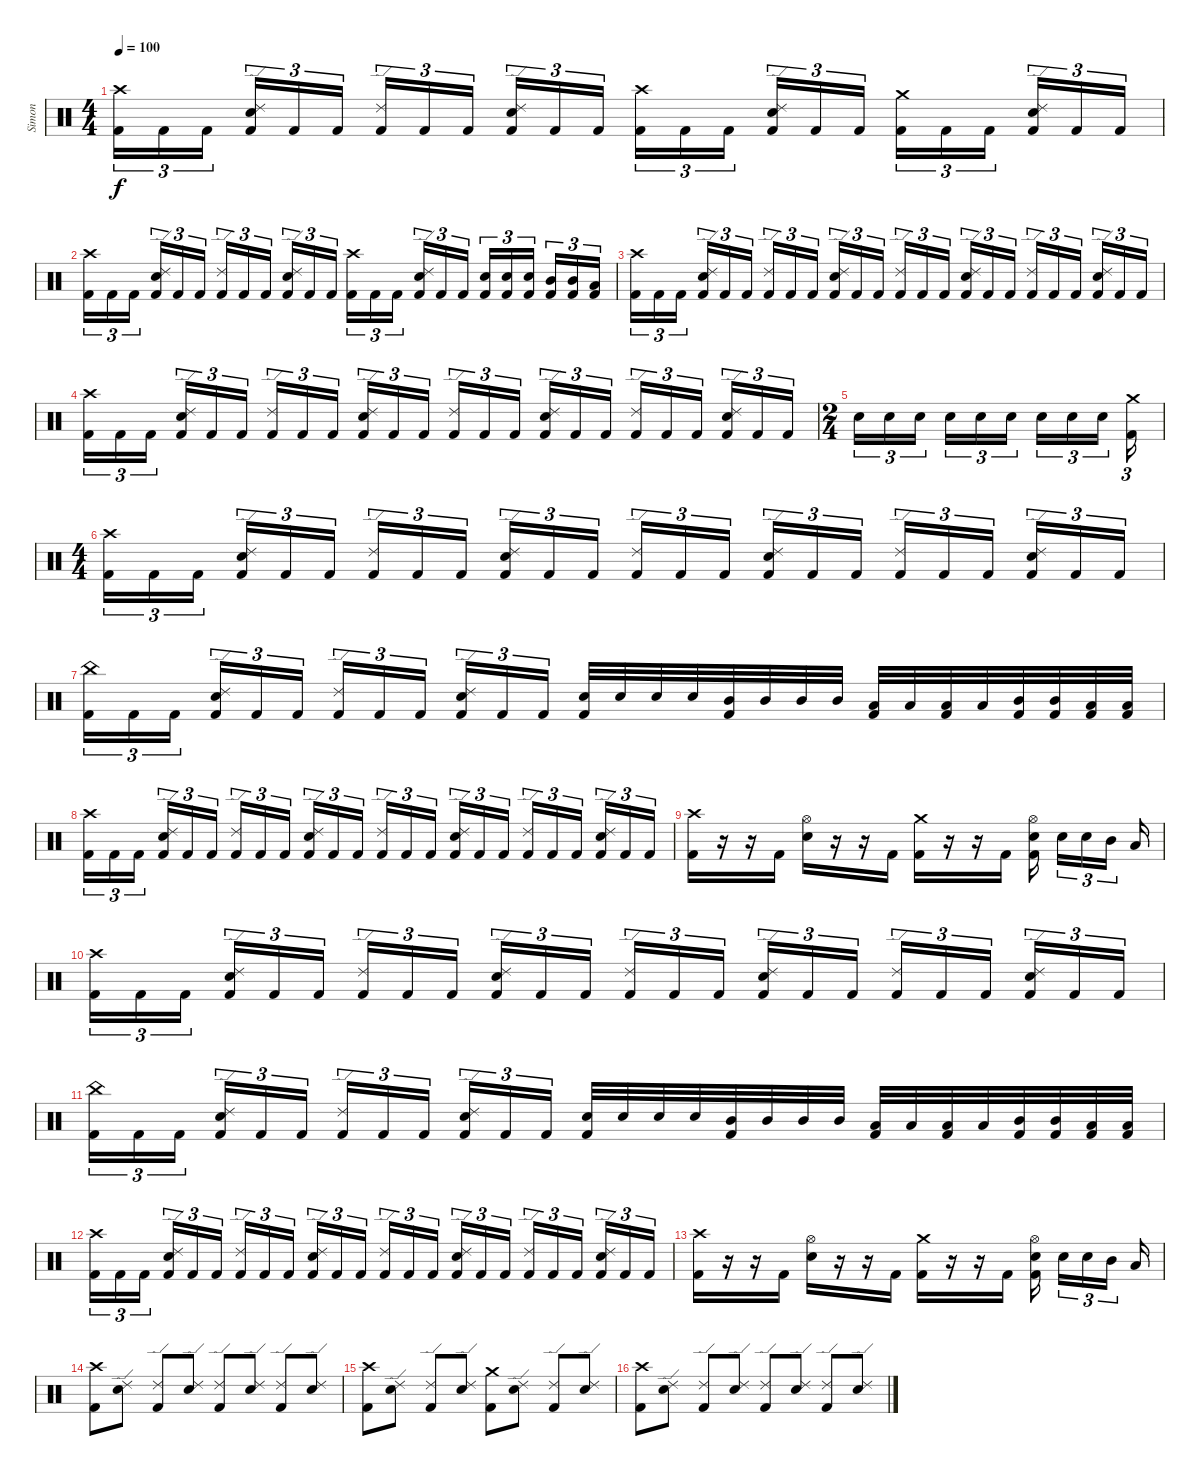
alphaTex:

\track ("Simon" "Simon") {instrument percussion}
\staff {score}
\articulation defaults
\ts (4 4)
\tempo 100
\clef neutral
\ks c
("Crash high (hit)" "Kick (hit) 2").16{tu (3 2) dy f} "Kick (hit) 2".16{tu (3 2)} "Kick (hit) 2".16{tu (3 2) beam splitsecondary} ("Ride (edge) 2" "Electric Snare (hit)" "Kick (hit) 2").16{tu (3 2)} "Kick (hit) 2".16{tu (3 2)} "Kick (hit) 2".16{tu (3 2)} ("Ride (edge) 2" "Kick (hit) 2").16{tu (3 2)} "Kick (hit) 2".16{tu (3 2)} "Kick (hit) 2".16{tu (3 2) beam splitsecondary} ("Ride (edge) 2" "Electric Snare (hit)" "Kick (hit) 2").16{tu (3 2)} "Kick (hit) 2".16{tu (3 2)} "Kick (hit) 2".16{tu (3 2)} ("Crash high (hit)" "Kick (hit) 2").16{tu (3 2)} "Kick (hit) 2".16{tu (3 2)} "Kick (hit) 2".16{tu (3 2) beam splitsecondary} ("Ride (edge) 2" "Electric Snare (hit)" "Kick (hit) 2").16{tu (3 2)} "Kick (hit) 2".16{tu (3 2)} "Kick (hit) 2".16{tu (3 2)} ("Crash medium (hit)" "Kick (hit) 2").16{tu (3 2)} "Kick (hit) 2".16{tu (3 2)} "Kick (hit) 2".16{tu (3 2) beam splitsecondary} ("Ride (edge) 2" "Electric Snare (hit)" "Kick (hit) 2").16{tu (3 2)} "Kick (hit) 2".16{tu (3 2)} "Kick (hit) 2".16{tu (3 2)} |
("Crash high (hit)" "Kick (hit) 2").16{tu (3 2)} "Kick (hit) 2".16{tu (3 2)} "Kick (hit) 2".16{tu (3 2) beam splitsecondary} ("Ride (edge) 2" "Electric Snare (hit)" "Kick (hit) 2").16{tu (3 2)} "Kick (hit) 2".16{tu (3 2)} "Kick (hit) 2".16{tu (3 2)} ("Ride (edge) 2" "Kick (hit) 2").16{tu (3 2)} "Kick (hit) 2".16{tu (3 2)} "Kick (hit) 2".16{tu (3 2) beam splitsecondary} ("Ride (edge) 2" "Electric Snare (hit)" "Kick (hit) 2").16{tu (3 2)} "Kick (hit) 2".16{tu (3 2)} "Kick (hit) 2".16{tu (3 2)} ("Crash high (hit)" "Kick (hit) 2").16{tu (3 2)} "Kick (hit) 2".16{tu (3 2)} "Kick (hit) 2".16{tu (3 2) beam splitsecondary} ("Ride (edge) 2" "Electric Snare (hit)" "Kick (hit) 2").16{tu (3 2)} "Kick (hit) 2".16{tu (3 2)} "Kick (hit) 2".16{tu (3 2)} ("Electric Snare (hit)" "Kick (hit) 2").16{tu (3 2)} ("Electric Snare (hit)" "Kick (hit) 2").16{tu (3 2)} ("Electric Snare (hit)" "Kick (hit) 2").16{tu (3 2) beam splitsecondary} ("Mid Tom (hit)" "Kick (hit) 2").16{tu (3 2)} ("Mid Tom (hit)" "Kick (hit) 2").16{tu (3 2)} ("Low Tom (hit)" "Kick (hit) 2").16{tu (3 2)} |
("Crash high (hit)" "Kick (hit) 2").16{tu (3 2)} "Kick (hit) 2".16{tu (3 2)} "Kick (hit) 2".16{tu (3 2) beam splitsecondary} ("Ride (edge) 2" "Electric Snare (hit)" "Kick (hit) 2").16{tu (3 2)} "Kick (hit) 2".16{tu (3 2)} "Kick (hit) 2".16{tu (3 2)} ("Ride (edge) 2" "Kick (hit) 2").16{tu (3 2)} "Kick (hit) 2".16{tu (3 2)} "Kick (hit) 2".16{tu (3 2) beam splitsecondary} ("Ride (edge) 2" "Electric Snare (hit)" "Kick (hit) 2").16{tu (3 2)} "Kick (hit) 2".16{tu (3 2)} "Kick (hit) 2".16{tu (3 2)} ("Ride (edge) 2" "Kick (hit) 2").16{tu (3 2)} "Kick (hit) 2".16{tu (3 2)} "Kick (hit) 2".16{tu (3 2) beam splitsecondary} ("Ride (edge) 2" "Electric Snare (hit)" "Kick (hit) 2").16{tu (3 2)} "Kick (hit) 2".16{tu (3 2)} "Kick (hit) 2".16{tu (3 2)} ("Ride (edge) 2" "Kick (hit) 2").16{tu (3 2)} "Kick (hit) 2".16{tu (3 2)} "Kick (hit) 2".16{tu (3 2) beam splitsecondary} ("Ride (edge) 2" "Electric Snare (hit)" "Kick (hit) 2").16{tu (3 2)} "Kick (hit) 2".16{tu (3 2)} "Kick (hit) 2".16{tu (3 2)} |
("Crash high (hit)" "Kick (hit) 2").16{tu (3 2)} "Kick (hit) 2".16{tu (3 2)} "Kick (hit) 2".16{tu (3 2) beam splitsecondary} ("Ride (edge) 2" "Electric Snare (hit)" "Kick (hit) 2").16{tu (3 2)} "Kick (hit) 2".16{tu (3 2)} "Kick (hit) 2".16{tu (3 2)} ("Ride (edge) 2" "Kick (hit) 2").16{tu (3 2)} "Kick (hit) 2".16{tu (3 2)} "Kick (hit) 2".16{tu (3 2) beam splitsecondary} ("Ride (edge) 2" "Electric Snare (hit)" "Kick (hit) 2").16{tu (3 2)} "Kick (hit) 2".16{tu (3 2)} "Kick (hit) 2".16{tu (3 2)} ("Ride (edge) 2" "Kick (hit) 2").16{tu (3 2)} "Kick (hit) 2".16{tu (3 2)} "Kick (hit) 2".16{tu (3 2) beam splitsecondary} ("Ride (edge) 2" "Electric Snare (hit)" "Kick (hit) 2").16{tu (3 2)} "Kick (hit) 2".16{tu (3 2)} "Kick (hit) 2".16{tu (3 2)} ("Ride (edge) 2" "Kick (hit) 2").16{tu (3 2)} "Kick (hit) 2".16{tu (3 2)} "Kick (hit) 2".16{tu (3 2) beam splitsecondary} ("Ride (edge) 2" "Electric Snare (hit)" "Kick (hit) 2").16{tu (3 2)} "Kick (hit) 2".16{tu (3 2)} "Kick (hit) 2".16{tu (3 2)} |
\ts (2 4)
"Electric Snare (hit)".16{tu (3 2)} "Electric Snare (hit)".16{tu (3 2)} "Electric Snare (hit)".16{tu (3 2) beam splitsecondary} "Electric Snare (hit)".16{tu (3 2)} "Electric Snare (hit)".16{tu (3 2)} "Electric Snare (hit)".16{tu (3 2)} "Electric Snare (hit)".16{tu (3 2)} "Electric Snare (hit)".16{tu (3 2)} "Electric Snare (hit)".16{tu (3 2) beam splitsecondary} ("Crash medium (hit)" "Kick (hit) 2").16{tu (3 2)} |
\ts (4 4)
("Crash high (hit)" "Kick (hit) 2").16{tu (3 2)} "Kick (hit) 2".16{tu (3 2)} "Kick (hit) 2".16{tu (3 2) beam splitsecondary} ("Ride (edge) 2" "Electric Snare (hit)" "Kick (hit) 2").16{tu (3 2)} "Kick (hit) 2".16{tu (3 2)} "Kick (hit) 2".16{tu (3 2)} ("Ride (edge) 2" "Kick (hit) 2").16{tu (3 2)} "Kick (hit) 2".16{tu (3 2)} "Kick (hit) 2".16{tu (3 2) beam splitsecondary} ("Ride (edge) 2" "Electric Snare (hit)" "Kick (hit) 2").16{tu (3 2)} "Kick (hit) 2".16{tu (3 2)} "Kick (hit) 2".16{tu (3 2)} ("Ride (edge) 2" "Kick (hit) 2").16{tu (3 2)} "Kick (hit) 2".16{tu (3 2)} "Kick (hit) 2".16{tu (3 2) beam splitsecondary} ("Ride (edge) 2" "Electric Snare (hit)" "Kick (hit) 2").16{tu (3 2)} "Kick (hit) 2".16{tu (3 2)} "Kick (hit) 2".16{tu (3 2)} ("Ride (edge) 2" "Kick (hit) 2").16{tu (3 2)} "Kick (hit) 2".16{tu (3 2)} "Kick (hit) 2".16{tu (3 2) beam splitsecondary} ("Ride (edge) 2" "Electric Snare (hit)" "Kick (hit) 2").16{tu (3 2)} "Kick (hit) 2".16{tu (3 2)} "Kick (hit) 2".16{tu (3 2)} |
("China (hit)" "Kick (hit) 2").16{tu (3 2)} "Kick (hit) 2".16{tu (3 2)} "Kick (hit) 2".16{tu (3 2) beam splitsecondary} ("Ride (edge) 2" "Electric Snare (hit)" "Kick (hit) 2").16{tu (3 2)} "Kick (hit) 2".16{tu (3 2)} "Kick (hit) 2".16{tu (3 2)} ("Ride (edge) 2" "Kick (hit) 2").16{tu (3 2)} "Kick (hit) 2".16{tu (3 2)} "Kick (hit) 2".16{tu (3 2) beam splitsecondary} ("Ride (edge) 2" "Electric Snare (hit)" "Kick (hit) 2").16{tu (3 2)} "Kick (hit) 2".16{tu (3 2)} "Kick (hit) 2".16{tu (3 2)} ("Electric Snare (hit)" "Kick (hit) 2").32 "Electric Snare (hit)".32 "Electric Snare (hit)".32 "Electric Snare (hit)".32 ("Mid Tom (hit)" "Kick (hit) 2").32 "Mid Tom (hit)".32 "Mid Tom (hit)".32 "Mid Tom (hit)".32 ("Low Tom (hit)" "Kick (hit) 2").32 "Low Tom (hit)".32 ("Low Tom (hit)" "Kick (hit) 2").32 "Low Tom (hit)".32 ("Mid Tom (hit)" "Kick (hit) 2").32 ("Mid Tom (hit)" "Kick (hit) 2").32 ("Low Tom (hit)" "Kick (hit) 2").32 ("Low Tom (hit)" "Kick (hit) 2").32 |
("Crash high (hit)" "Kick (hit) 2").16{tu (3 2)} "Kick (hit) 2".16{tu (3 2)} "Kick (hit) 2".16{tu (3 2) beam splitsecondary} ("Ride (edge) 2" "Electric Snare (hit)" "Kick (hit) 2").16{tu (3 2)} "Kick (hit) 2".16{tu (3 2)} "Kick (hit) 2".16{tu (3 2)} ("Ride (edge) 2" "Kick (hit) 2").16{tu (3 2)} "Kick (hit) 2".16{tu (3 2)} "Kick (hit) 2".16{tu (3 2) beam splitsecondary} ("Ride (edge) 2" "Electric Snare (hit)" "Kick (hit) 2").16{tu (3 2)} "Kick (hit) 2".16{tu (3 2)} "Kick (hit) 2".16{tu (3 2)} ("Ride (edge) 2" "Kick (hit) 2").16{tu (3 2)} "Kick (hit) 2".16{tu (3 2)} "Kick (hit) 2".16{tu (3 2) beam splitsecondary} ("Ride (edge) 2" "Electric Snare (hit)" "Kick (hit) 2").16{tu (3 2)} "Kick (hit) 2".16{tu (3 2)} "Kick (hit) 2".16{tu (3 2)} ("Ride (edge) 2" "Kick (hit) 2").16{tu (3 2)} "Kick (hit) 2".16{tu (3 2)} "Kick (hit) 2".16{tu (3 2) beam splitsecondary} ("Ride (edge) 2" "Electric Snare (hit)" "Kick (hit) 2").16{tu (3 2)} "Kick (hit) 2".16{tu (3 2)} "Kick (hit) 2".16{tu (3 2)} |
("Crash high (hit)" "Kick (hit) 2").16 r.16 r.16 "Kick (hit) 2".16 ("Hi-Hat (open)" "Electric Snare (hit)").16 r.16 r.16 "Kick (hit) 2".16 ("Crash medium (hit)" "Kick (hit) 2").16 r.16 r.16 "Kick (hit) 2".16 ("Hi-Hat (open)" "Electric Snare (hit)" "Kick (hit) 2").16{beam splitsecondary} "Electric Snare (hit)".16{tu (3 2)} "Electric Snare (hit)".16{tu (3 2)} "Mid Tom (hit)".16{tu (3 2) beam splitsecondary} "Low Tom (hit)".16 |
("Crash high (hit)" "Kick (hit) 2").16{tu (3 2)} "Kick (hit) 2".16{tu (3 2)} "Kick (hit) 2".16{tu (3 2) beam splitsecondary} ("Ride (edge) 2" "Electric Snare (hit)" "Kick (hit) 2").16{tu (3 2)} "Kick (hit) 2".16{tu (3 2)} "Kick (hit) 2".16{tu (3 2)} ("Ride (edge) 2" "Kick (hit) 2").16{tu (3 2)} "Kick (hit) 2".16{tu (3 2)} "Kick (hit) 2".16{tu (3 2) beam splitsecondary} ("Ride (edge) 2" "Electric Snare (hit)" "Kick (hit) 2").16{tu (3 2)} "Kick (hit) 2".16{tu (3 2)} "Kick (hit) 2".16{tu (3 2)} ("Ride (edge) 2" "Kick (hit) 2").16{tu (3 2)} "Kick (hit) 2".16{tu (3 2)} "Kick (hit) 2".16{tu (3 2) beam splitsecondary} ("Ride (edge) 2" "Electric Snare (hit)" "Kick (hit) 2").16{tu (3 2)} "Kick (hit) 2".16{tu (3 2)} "Kick (hit) 2".16{tu (3 2)} ("Ride (edge) 2" "Kick (hit) 2").16{tu (3 2)} "Kick (hit) 2".16{tu (3 2)} "Kick (hit) 2".16{tu (3 2) beam splitsecondary} ("Ride (edge) 2" "Electric Snare (hit)" "Kick (hit) 2").16{tu (3 2)} "Kick (hit) 2".16{tu (3 2)} "Kick (hit) 2".16{tu (3 2)} |
("China (hit)" "Kick (hit) 2").16{tu (3 2)} "Kick (hit) 2".16{tu (3 2)} "Kick (hit) 2".16{tu (3 2) beam splitsecondary} ("Ride (edge) 2" "Electric Snare (hit)" "Kick (hit) 2").16{tu (3 2)} "Kick (hit) 2".16{tu (3 2)} "Kick (hit) 2".16{tu (3 2)} ("Ride (edge) 2" "Kick (hit) 2").16{tu (3 2)} "Kick (hit) 2".16{tu (3 2)} "Kick (hit) 2".16{tu (3 2) beam splitsecondary} ("Ride (edge) 2" "Electric Snare (hit)" "Kick (hit) 2").16{tu (3 2)} "Kick (hit) 2".16{tu (3 2)} "Kick (hit) 2".16{tu (3 2)} ("Electric Snare (hit)" "Kick (hit) 2").32 "Electric Snare (hit)".32 "Electric Snare (hit)".32 "Electric Snare (hit)".32 ("Mid Tom (hit)" "Kick (hit) 2").32 "Mid Tom (hit)".32 "Mid Tom (hit)".32 "Mid Tom (hit)".32 ("Low Tom (hit)" "Kick (hit) 2").32 "Low Tom (hit)".32 ("Low Tom (hit)" "Kick (hit) 2").32 "Low Tom (hit)".32 ("Mid Tom (hit)" "Kick (hit) 2").32 ("Mid Tom (hit)" "Kick (hit) 2").32 ("Low Tom (hit)" "Kick (hit) 2").32 ("Low Tom (hit)" "Kick (hit) 2").32 |
("Crash high (hit)" "Kick (hit) 2").16{tu (3 2)} "Kick (hit) 2".16{tu (3 2)} "Kick (hit) 2".16{tu (3 2) beam splitsecondary} ("Ride (edge) 2" "Electric Snare (hit)" "Kick (hit) 2").16{tu (3 2)} "Kick (hit) 2".16{tu (3 2)} "Kick (hit) 2".16{tu (3 2)} ("Ride (edge) 2" "Kick (hit) 2").16{tu (3 2)} "Kick (hit) 2".16{tu (3 2)} "Kick (hit) 2".16{tu (3 2) beam splitsecondary} ("Ride (edge) 2" "Electric Snare (hit)" "Kick (hit) 2").16{tu (3 2)} "Kick (hit) 2".16{tu (3 2)} "Kick (hit) 2".16{tu (3 2)} ("Ride (edge) 2" "Kick (hit) 2").16{tu (3 2)} "Kick (hit) 2".16{tu (3 2)} "Kick (hit) 2".16{tu (3 2) beam splitsecondary} ("Ride (edge) 2" "Electric Snare (hit)" "Kick (hit) 2").16{tu (3 2)} "Kick (hit) 2".16{tu (3 2)} "Kick (hit) 2".16{tu (3 2)} ("Ride (edge) 2" "Kick (hit) 2").16{tu (3 2)} "Kick (hit) 2".16{tu (3 2)} "Kick (hit) 2".16{tu (3 2) beam splitsecondary} ("Ride (edge) 2" "Electric Snare (hit)" "Kick (hit) 2").16{tu (3 2)} "Kick (hit) 2".16{tu (3 2)} "Kick (hit) 2".16{tu (3 2)} |
("Crash high (hit)" "Kick (hit) 2").16 r.16 r.16 "Kick (hit) 2".16 ("Hi-Hat (open)" "Electric Snare (hit)").16 r.16 r.16 "Kick (hit) 2".16 ("Crash medium (hit)" "Kick (hit) 2").16 r.16 r.16 "Kick (hit) 2".16 ("Hi-Hat (open)" "Electric Snare (hit)" "Kick (hit) 2").16{beam splitsecondary} "Electric Snare (hit)".16{tu (3 2)} "Electric Snare (hit)".16{tu (3 2)} "Mid Tom (hit)".16{tu (3 2) beam splitsecondary} "Low Tom (hit)".16 |
("Crash high (hit)" "Kick (hit) 2").8 ("Ride (edge) 2" "Electric Snare (hit)").8 ("Ride (edge) 2" "Kick (hit) 2").8 ("Ride (edge) 2" "Electric Snare (hit)").8 ("Ride (edge) 2" "Kick (hit) 2").8 ("Ride (edge) 2" "Electric Snare (hit)").8 ("Ride (edge) 2" "Kick (hit) 2").8 ("Ride (edge) 2" "Electric Snare (hit)").8 |
("Crash high (hit)" "Kick (hit) 2").8 ("Ride (edge) 2" "Electric Snare (hit)").8 ("Ride (edge) 2" "Kick (hit) 2").8 ("Ride (edge) 2" "Electric Snare (hit)").8 ("Crash medium (hit)" "Kick (hit) 2").8 ("Ride (edge) 2" "Electric Snare (hit)").8 ("Ride (edge) 2" "Kick (hit) 2").8 ("Ride (edge) 2" "Electric Snare (hit)").8 |
("Crash high (hit)" "Kick (hit) 2").8 ("Ride (edge) 2" "Electric Snare (hit)").8 ("Ride (edge) 2" "Kick (hit) 2").8 ("Ride (edge) 2" "Electric Snare (hit)").8 ("Ride (edge) 2" "Kick (hit) 2").8 ("Ride (edge) 2" "Electric Snare (hit)").8 ("Ride (edge) 2" "Kick (hit) 2").8 ("Ride (edge) 2" "Electric Snare (hit)").8
